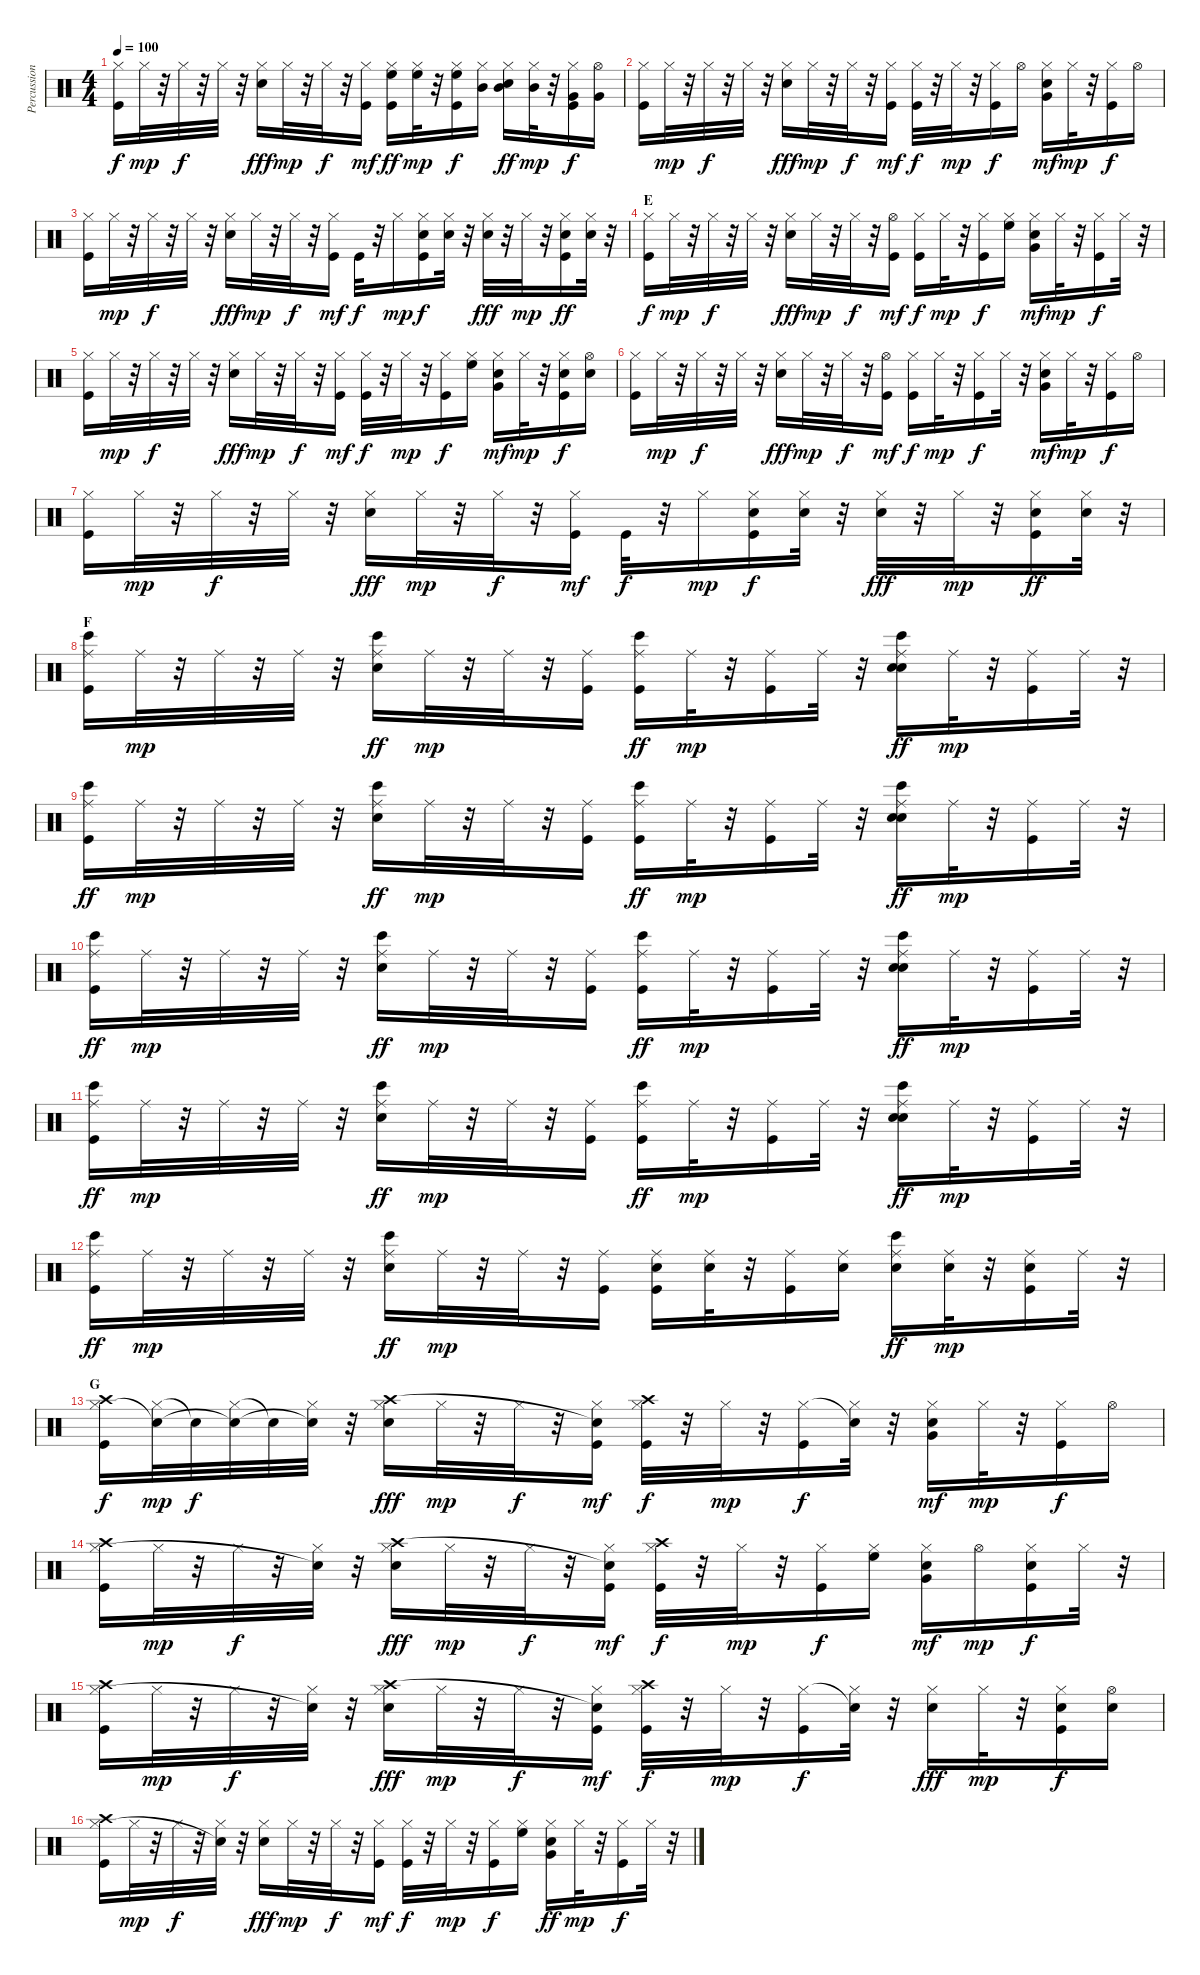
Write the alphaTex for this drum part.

\track ("Percussion" "Percussion") {instrument percussion}
\staff {score}
\articulation defaults
\ts (4 4)
\tempo 100
\clef neutral
\ks c
("Kick (hit)" "Hi-Hat (closed)").16{dy f} "Hi-Hat (closed)".32{dy mp} r.32 "Hi-Hat (closed)".32{dy f} r.32 "Hi-Hat (closed)".32 r.32 ("Electric Snare (hit)" "Hi-Hat (closed)").16{dy fff} "Hi-Hat (closed)".32{dy mp} r.32 "Hi-Hat (closed)".32{dy f} r.32 ("Kick (hit)" "Hi-Hat (closed)").16{dy mf} ("Kick (hit)" "Hi-Hat (closed)" "High Floor Tom (hit)").16{dy ff} ("Hi-Hat (closed)" "High Floor Tom (hit)").32{dy mp} r.32 ("Kick (hit)" "Hi-Hat (closed)" "High Floor Tom (hit)").16{dy f} ("Hi-Hat (closed)" "Mid Tom (hit)").16 ("Electric Snare (hit)" "Hi-Hat (closed)" "Mid Tom (hit)").16{dy ff} ("Hi-Hat (closed)" "Mid Tom (hit)").32{dy mp} r.32 ("Kick (hit)" "Hi-Hat (closed)" "Very Low Tom (hit)").16{dy f} ("Very Low Tom (hit)" "Hi-Hat (open)").16 |
("Kick (hit)" "Hi-Hat (closed)").16 "Hi-Hat (closed)".32{dy mp} r.32 "Hi-Hat (closed)".32{dy f} r.32 "Hi-Hat (closed)".32 r.32 ("Electric Snare (hit)" "Hi-Hat (closed)").16{dy fff} "Hi-Hat (closed)".32{dy mp} r.32 "Hi-Hat (closed)".32{dy f} r.32 ("Kick (hit)" "Hi-Hat (closed)").16{dy mf} ("Kick (hit)" "Hi-Hat (closed)").32{dy f} r.32 "Hi-Hat (closed)".32{dy mp} r.32 ("Kick (hit)" "Hi-Hat (closed)").16{dy f} "Hi-Hat (open)".16 ("Electric Snare (hit)" "Hi-Hat (closed)" "Very Low Tom (hit)").16{dy mf} "Hi-Hat (closed)".32{dy mp} r.32 ("Kick (hit)" "Hi-Hat (closed)").16{dy f} "Hi-Hat (open)".16 |
("Kick (hit)" "Hi-Hat (closed)").16 "Hi-Hat (closed)".32{dy mp} r.32 "Hi-Hat (closed)".32{dy f} r.32 "Hi-Hat (closed)".32 r.32 ("Electric Snare (hit)" "Hi-Hat (closed)").16{dy fff} "Hi-Hat (closed)".32{dy mp} r.32 "Hi-Hat (closed)".32{dy f} r.32 ("Kick (hit)" "Hi-Hat (closed)").16{dy mf} "Kick (hit)".32{dy f} r.32 "Hi-Hat (closed)".16{dy mp} ("Kick (hit)" "Electric Snare (hit)" "Hi-Hat (closed)").16{dy f} ("Electric Snare (hit)" "Hi-Hat (closed)").32 r.32 ("Electric Snare (hit)" "Hi-Hat (closed)").32{dy fff} r.32 "Hi-Hat (closed)".32{dy mp} r.32 ("Kick (hit)" "Electric Snare (hit)" "Hi-Hat (closed)").16{dy ff} ("Electric Snare (hit)" "Hi-Hat (closed)").32 r.32 |
\section ("" "E")
("Kick (hit)" "Hi-Hat (closed)").16{dy f} "Hi-Hat (closed)".32{dy mp} r.32 "Hi-Hat (closed)".32{dy f} r.32 "Hi-Hat (closed)".32 r.32 ("Electric Snare (hit)" "Hi-Hat (closed)").16{dy fff} "Hi-Hat (closed)".32{dy mp} r.32 "Hi-Hat (closed)".32{dy f} r.32 ("Kick (hit)" "Hi-Hat (open)").16{dy mf} ("Kick (hit)" "Hi-Hat (closed)").16{dy f} "Hi-Hat (closed)".32{dy mp} r.32 ("Kick (hit)" "Hi-Hat (closed)").16{dy f} ("Hi-Hat (closed)" "High Floor Tom (hit)").16 ("Electric Snare (hit)" "Hi-Hat (closed)" "Very Low Tom (hit)").16{dy mf} "Hi-Hat (closed)".32{dy mp} r.32 ("Kick (hit)" "Hi-Hat (closed)").16{dy f} "Hi-Hat (closed)".32 r.32 |
("Kick (hit)" "Hi-Hat (closed)").16 "Hi-Hat (closed)".32{dy mp} r.32 "Hi-Hat (closed)".32{dy f} r.32 "Hi-Hat (closed)".32 r.32 ("Electric Snare (hit)" "Hi-Hat (closed)").16{dy fff} "Hi-Hat (closed)".32{dy mp} r.32 "Hi-Hat (closed)".32{dy f} r.32 ("Kick (hit)" "Hi-Hat (closed)").16{dy mf} ("Kick (hit)" "Hi-Hat (closed)").32{dy f} r.32 "Hi-Hat (closed)".32{dy mp} r.32 ("Kick (hit)" "Hi-Hat (closed)").16{dy f} ("Hi-Hat (closed)" "High Floor Tom (hit)").16 ("Electric Snare (hit)" "Hi-Hat (closed)" "Very Low Tom (hit)").16{dy mf} "Hi-Hat (closed)".32{dy mp} r.32 ("Kick (hit)" "Electric Snare (hit)" "Hi-Hat (closed)").16{dy f} ("Electric Snare (hit)" "Hi-Hat (open)").16 |
("Kick (hit)" "Hi-Hat (closed)").16 "Hi-Hat (closed)".32{dy mp} r.32 "Hi-Hat (closed)".32{dy f} r.32 "Hi-Hat (closed)".32 r.32 ("Electric Snare (hit)" "Hi-Hat (closed)").16{dy fff} "Hi-Hat (closed)".32{dy mp} r.32 "Hi-Hat (closed)".32{dy f} r.32 ("Kick (hit)" "Hi-Hat (open)").16{dy mf} ("Kick (hit)" "Hi-Hat (closed)").16{dy f} "Hi-Hat (closed)".32{dy mp} r.32 ("Kick (hit)" "Hi-Hat (closed)").16{dy f} "Hi-Hat (closed)".32 r.32 ("Electric Snare (hit)" "Hi-Hat (closed)" "Very Low Tom (hit)").16{dy mf} "Hi-Hat (closed)".32{dy mp} r.32 ("Kick (hit)" "Hi-Hat (closed)").16{dy f} "Hi-Hat (open)".16 |
("Kick (hit)" "Hi-Hat (closed)").16 "Hi-Hat (closed)".32{dy mp} r.32 "Hi-Hat (closed)".32{dy f} r.32 "Hi-Hat (closed)".32 r.32 ("Electric Snare (hit)" "Hi-Hat (closed)").16{dy fff} "Hi-Hat (closed)".32{dy mp} r.32 "Hi-Hat (closed)".32{dy f} r.32 ("Kick (hit)" "Hi-Hat (closed)").16{dy mf} "Kick (hit)".32{dy f} r.32 "Hi-Hat (closed)".16{dy mp} ("Kick (hit)" "Electric Snare (hit)" "Hi-Hat (closed)").16{dy f} ("Electric Snare (hit)" "Hi-Hat (closed)").32 r.32 ("Electric Snare (hit)" "Hi-Hat (closed)").32{dy fff} r.32 "Hi-Hat (closed)".32{dy mp} r.32 ("Kick (hit)" "Electric Snare (hit)" "Hi-Hat (closed)").16{dy ff} ("Electric Snare (hit)" "Hi-Hat (closed)").32 r.32 |
\section ("" "F")
("Kick (hit)" "Ride (middle)" "Bongo High (hit)").16 "Ride (middle)".32{dy mp} r.32 "Ride (middle)".32 r.32 "Ride (middle)".32 r.32 ("Electric Snare (hit)" "Ride (middle)" "Bongo High (hit)").16{dy ff} "Ride (middle)".32{dy mp} r.32 "Ride (middle)".32 r.32 ("Kick (hit)" "Ride (middle)").16 ("Kick (hit)" "Ride (middle)" "Bongo High (hit)").16{dy ff} "Ride (middle)".32{dy mp} r.32 ("Kick (hit)" "Ride (middle)").16 "Ride (middle)".32 r.32 ("Hand Clap (hit)" "Electric Snare (hit)" "Ride (middle)" "Bongo High (hit)").16{dy ff} "Ride (middle)".32{dy mp} r.32 ("Kick (hit)" "Ride (middle)").16 "Ride (middle)".32 r.32 |
("Kick (hit)" "Ride (middle)" "Bongo High (hit)").16{dy ff} "Ride (middle)".32{dy mp} r.32 "Ride (middle)".32 r.32 "Ride (middle)".32 r.32 ("Electric Snare (hit)" "Ride (middle)" "Bongo High (hit)").16{dy ff} "Ride (middle)".32{dy mp} r.32 "Ride (middle)".32 r.32 ("Kick (hit)" "Ride (middle)").16 ("Kick (hit)" "Ride (middle)" "Bongo High (hit)").16{dy ff} "Ride (middle)".32{dy mp} r.32 ("Kick (hit)" "Ride (middle)").16 "Ride (middle)".32 r.32 ("Hand Clap (hit)" "Electric Snare (hit)" "Ride (middle)" "Bongo High (hit)").16{dy ff} "Ride (middle)".32{dy mp} r.32 ("Kick (hit)" "Ride (middle)").16 "Ride (middle)".32 r.32 |
("Kick (hit)" "Ride (middle)" "Bongo High (hit)").16{dy ff} "Ride (middle)".32{dy mp} r.32 "Ride (middle)".32 r.32 "Ride (middle)".32 r.32 ("Electric Snare (hit)" "Ride (middle)" "Bongo High (hit)").16{dy ff} "Ride (middle)".32{dy mp} r.32 "Ride (middle)".32 r.32 ("Kick (hit)" "Ride (middle)").16 ("Kick (hit)" "Ride (middle)" "Bongo High (hit)").16{dy ff} "Ride (middle)".32{dy mp} r.32 ("Kick (hit)" "Ride (middle)").16 "Ride (middle)".32 r.32 ("Hand Clap (hit)" "Electric Snare (hit)" "Ride (middle)" "Bongo High (hit)").16{dy ff} "Ride (middle)".32{dy mp} r.32 ("Kick (hit)" "Ride (middle)").16 "Ride (middle)".32 r.32 |
("Kick (hit)" "Ride (middle)" "Bongo High (hit)").16{dy ff} "Ride (middle)".32{dy mp} r.32 "Ride (middle)".32 r.32 "Ride (middle)".32 r.32 ("Electric Snare (hit)" "Ride (middle)" "Bongo High (hit)").16{dy ff} "Ride (middle)".32{dy mp} r.32 "Ride (middle)".32 r.32 ("Kick (hit)" "Ride (middle)").16 ("Kick (hit)" "Ride (middle)" "Bongo High (hit)").16{dy ff} "Ride (middle)".32{dy mp} r.32 ("Kick (hit)" "Ride (middle)").16 "Ride (middle)".32 r.32 ("Hand Clap (hit)" "Electric Snare (hit)" "Ride (middle)" "Bongo High (hit)").16{dy ff} "Ride (middle)".32{dy mp} r.32 ("Kick (hit)" "Ride (middle)").16 "Ride (middle)".32 r.32 |
("Kick (hit)" "Ride (middle)" "Bongo High (hit)").16{dy ff} "Ride (middle)".32{dy mp} r.32 "Ride (middle)".32 r.32 "Ride (middle)".32 r.32 ("Electric Snare (hit)" "Ride (middle)" "Bongo High (hit)").16{dy ff} "Ride (middle)".32{dy mp} r.32 "Ride (middle)".32 r.32 ("Kick (hit)" "Ride (middle)").16 ("Kick (hit)" "Electric Snare (hit)" "Ride (middle)").16 ("Electric Snare (hit)" "Ride (middle)").32 r.32 ("Kick (hit)" "Ride (middle)").16 ("Electric Snare (hit)" "Ride (middle)").16 ("Electric Snare (hit)" "Ride (middle)" "Bongo High (hit)").16{dy ff} ("Electric Snare (hit)" "Ride (middle)").32{dy mp} r.32 ("Kick (hit)" "Electric Snare (hit)" "Ride (middle)").16 "Ride (middle)".32 r.32 |
\section ("" "G")
("Kick (hit)" "Hi-Hat (closed)" "Crash high (hit)").16{dy f} ("Hi-Hat (closed)" "Snare (hit)"{t}).32{dy mp} "Snare (hit)"{t}.32{dy f} ("Hi-Hat (closed)" "Snare (hit)"{t}).32 "Snare (hit)"{t}.32 ("Hi-Hat (closed)" "Snare (hit)"{t}).32 r.32 ("Electric Snare (hit)" "Hi-Hat (closed)" "Crash high (hit)").16{dy fff} "Hi-Hat (closed)".32{dy mp} r.32 "Hi-Hat (closed)".32{dy f} r.32 ("Kick (hit)" "Hi-Hat (closed)" "Snare (hit)"{t}).16{dy mf} ("Kick (hit)" "Hi-Hat (closed)" "Crash high (hit)").32{dy f} r.32 "Hi-Hat (closed)".32{dy mp} r.32 ("Kick (hit)" "Hi-Hat (closed)").16{dy f} ("Hi-Hat (closed)" "Snare (hit)"{t}).32 r.32 ("Electric Snare (hit)" "Hi-Hat (closed)" "Very Low Tom (hit)").16{dy mf} "Hi-Hat (closed)".32{dy mp} r.32 ("Kick (hit)" "Hi-Hat (closed)").16{dy f} "Hi-Hat (open)".16 |
("Kick (hit)" "Hi-Hat (closed)" "Crash high (hit)").16 "Hi-Hat (closed)".32{dy mp} r.32 "Hi-Hat (closed)".32{dy f} r.32 ("Hi-Hat (closed)" "Snare (hit)"{t}).32 r.32 ("Electric Snare (hit)" "Hi-Hat (closed)" "Crash high (hit)").16{dy fff} "Hi-Hat (closed)".32{dy mp} r.32 "Hi-Hat (closed)".32{dy f} r.32 ("Kick (hit)" "Hi-Hat (closed)" "Snare (hit)"{t}).16{dy mf} ("Kick (hit)" "Hi-Hat (closed)" "Crash high (hit)").32{dy f} r.32 "Hi-Hat (closed)".32{dy mp} r.32 ("Kick (hit)" "Hi-Hat (closed)").16{dy f} ("Hi-Hat (closed)" "High Floor Tom (hit)").16 ("Electric Snare (hit)" "Hi-Hat (closed)" "Very Low Tom (hit)").16{dy mf} "Hi-Hat (open)".16{dy mp} ("Kick (hit)" "Electric Snare (hit)" "Hi-Hat (closed)").16{dy f} "Hi-Hat (closed)".32 r.32 |
("Kick (hit)" "Hi-Hat (closed)" "Crash high (hit)").16 "Hi-Hat (closed)".32{dy mp} r.32 "Hi-Hat (closed)".32{dy f} r.32 ("Hi-Hat (closed)" "Snare (hit)"{t}).32 r.32 ("Electric Snare (hit)" "Hi-Hat (closed)" "Crash high (hit)").16{dy fff} "Hi-Hat (closed)".32{dy mp} r.32 "Hi-Hat (closed)".32{dy f} r.32 ("Kick (hit)" "Hi-Hat (closed)" "Snare (hit)"{t}).16{dy mf} ("Kick (hit)" "Hi-Hat (closed)" "Crash high (hit)").32{dy f} r.32 "Hi-Hat (closed)".32{dy mp} r.32 ("Kick (hit)" "Hi-Hat (closed)").16{dy f} ("Hi-Hat (closed)" "Snare (hit)"{t}).32 r.32 ("Electric Snare (hit)" "Hi-Hat (closed)").16{dy fff} "Hi-Hat (closed)".32{dy mp} r.32 ("Kick (hit)" "Electric Snare (hit)" "Hi-Hat (closed)").16{dy f} ("Electric Snare (hit)" "Hi-Hat (open)").16 |
("Kick (hit)" "Hi-Hat (closed)" "Crash high (hit)").16 "Hi-Hat (closed)".32{dy mp} r.32 "Hi-Hat (closed)".32{dy f} r.32 ("Hi-Hat (closed)" "Snare (hit)"{t}).32 r.32 ("Electric Snare (hit)" "Hi-Hat (closed)").16{dy fff} "Hi-Hat (closed)".32{dy mp} r.32 "Hi-Hat (closed)".32{dy f} r.32 ("Kick (hit)" "Hi-Hat (closed)").16{dy mf} ("Kick (hit)" "Hi-Hat (closed)").32{dy f} r.32 "Hi-Hat (closed)".32{dy mp} r.32 ("Kick (hit)" "Hi-Hat (closed)").16{dy f} ("Hi-Hat (closed)" "High Floor Tom (hit)").16 ("Electric Snare (hit)" "Hi-Hat (closed)" "Very Low Tom (hit)").16{dy ff} "Hi-Hat (closed)".32{dy mp} r.32 ("Kick (hit)" "Hi-Hat (closed)").16{dy f} "Hi-Hat (closed)".32 r.32
